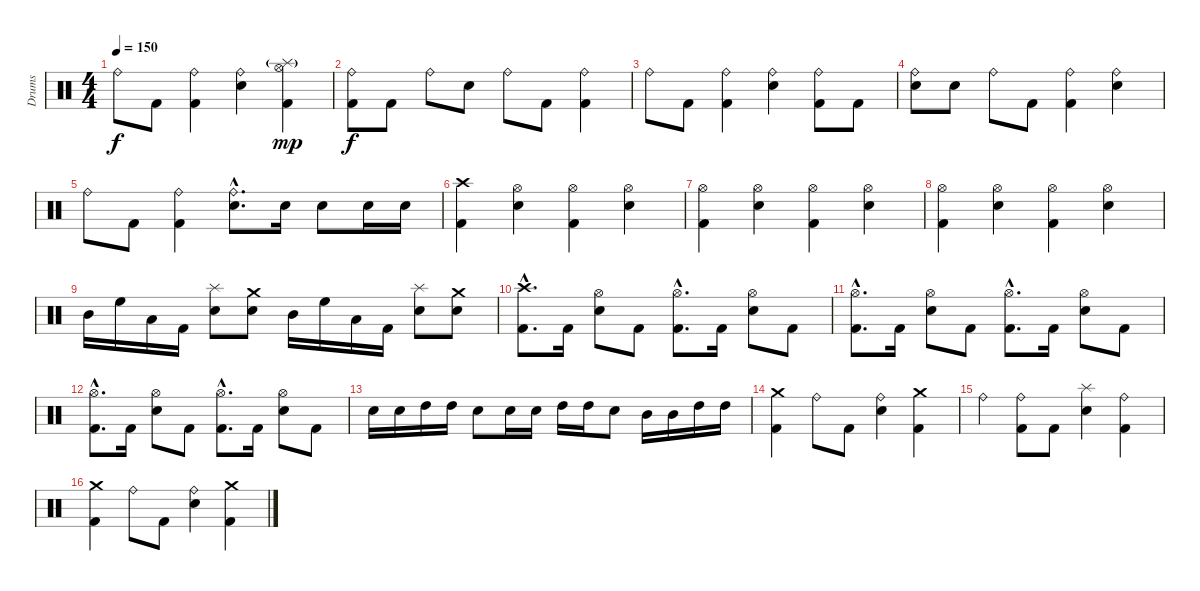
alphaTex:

\track ("Drums" "Drums") {instrument percussion}
\staff {score}
\articulation defaults
\ts (4 4)
\tempo 150
\clef neutral
\ks c "Ride (bell)".8{dy f} "Kick (hit) 2".8
("Ride (bell)" "Kick (hit) 2").4 ("Ride (bell)" "Electric Snare (hit)").4 ("Hi-Hat (open)" "Splash (hit)"{g} "Kick (hit) 2").4{dy mp} |
("Ride (bell)" "Kick (hit) 2").8{dy f} "Kick (hit) 2".8 "Ride (bell)".8 "Electric Snare (hit)".8 "Ride (bell)".8 "Kick (hit) 2".8 ("Ride (bell)" "Kick (hit) 2").4 |
"Ride (bell)".8 "Kick (hit) 2".8 ("Ride (bell)" "Kick (hit) 2").4 ("Ride (bell)" "Electric Snare (hit)").4 ("Ride (bell)" "Kick (hit) 2").8 "Kick (hit) 2".8 |
("Ride (bell)" "Electric Snare (hit)").8 "Electric Snare (hit)".8 "Ride (bell)".8 "Kick (hit) 2".8 ("Ride (bell)" "Kick (hit) 2").4 ("Ride (bell)" "Electric Snare (hit)").4 |
"Ride (bell)".8 "Kick (hit) 2".8 ("Ride (bell)" "Kick (hit) 2").4 ("Ride (bell)"{hac} "Electric Snare (hit)"{hac}).8{d} "Electric Snare (hit)".16 "Electric Snare (hit)".8 "Electric Snare (hit)".16 "Electric Snare (hit)".16 |
("Crash high (hit)" "Kick (hit) 2").4 ("Hi-Hat (open)" "Electric Snare (hit)").4 ("Hi-Hat (open)" "Kick (hit) 2").4 ("Hi-Hat (open)" "Electric Snare (hit)").4 |
("Hi-Hat (open)" "Kick (hit) 2").4 ("Hi-Hat (open)" "Electric Snare (hit)").4 ("Hi-Hat (open)" "Kick (hit) 2").4 ("Hi-Hat (open)" "Electric Snare (hit)").4 |
("Hi-Hat (open)" "Kick (hit) 2").4 ("Hi-Hat (open)" "Electric Snare (hit)").4 ("Hi-Hat (open)" "Kick (hit) 2").4 ("Hi-Hat (open)" "Electric Snare (hit)").4 |
"Mid Tom (hit)".16 "High Floor Tom (hit)".16 "Low Floor Tom (hit)".16 "Kick (hit) 2".16 ("Splash (hit)" "Electric Snare (hit)").8 ("Crash medium (hit)" "Electric Snare (hit)").8 "Mid Tom (hit)".16 "High Floor Tom (hit)".16 "Low Floor Tom (hit)".16 "Kick (hit) 2".16 ("Splash (hit)" "Electric Snare (hit)").8 ("Crash medium (hit)" "Electric Snare (hit)").8 |
("Crash high (hit)"{hac} "Kick (hit) 2"{hac}).8{d} "Kick (hit) 2".16 ("Hi-Hat (open)" "Electric Snare (hit)").8 "Kick (hit) 2".8 ("Hi-Hat (open)"{hac} "Kick (hit) 2"{hac}).8{d} "Kick (hit) 2".16 ("Hi-Hat (open)" "Electric Snare (hit)").8 "Kick (hit) 2".8 |
("Hi-Hat (open)"{hac} "Kick (hit) 2"{hac}).8{d} "Kick (hit) 2".16 ("Hi-Hat (open)" "Electric Snare (hit)").8 "Kick (hit) 2".8 ("Hi-Hat (open)"{hac} "Kick (hit) 2"{hac}).8{d} "Kick (hit) 2".16 ("Hi-Hat (open)" "Electric Snare (hit)").8 "Kick (hit) 2".8 |
("Hi-Hat (open)"{hac} "Kick (hit) 2"{hac}).8{d} "Kick (hit) 2".16 ("Hi-Hat (open)" "Electric Snare (hit)").8 "Kick (hit) 2".8 ("Hi-Hat (open)"{hac} "Kick (hit) 2"{hac}).8{d} "Kick (hit) 2".16 ("Hi-Hat (open)" "Electric Snare (hit)").8 "Kick (hit) 2".8 |
"Electric Snare (hit)".16 "Electric Snare (hit)".16 "High Tom (hit)".16 "High Tom (hit)".16 "Electric Snare (hit)".8 "Electric Snare (hit)".16 "Electric Snare (hit)".16 "High Tom (hit)".16 "High Tom (hit)".16 "Electric Snare (hit)".8 "Mid Tom (hit)".16 "Mid Tom (hit)".16 "High Tom (hit)".16 "High Tom (hit)".16 |
("Crash medium (hit)" "Kick (hit) 2").4 "Ride (bell)".8 "Kick (hit) 2".8 ("Ride (bell)" "Electric Snare (hit)").4 ("Crash medium (hit)" "Kick (hit) 2").4 |
"Ride (bell)".4 ("Ride (bell)" "Kick (hit) 2").8 "Kick (hit) 2".8 ("Splash (hit)" "Electric Snare (hit)").4 ("Ride (bell)" "Kick (hit) 2").4 |
("Crash medium (hit)" "Kick (hit) 2").4 "Ride (bell)".8 "Kick (hit) 2".8 ("Ride (bell)" "Electric Snare (hit)").4 ("Crash medium (hit)" "Kick (hit) 2").4
